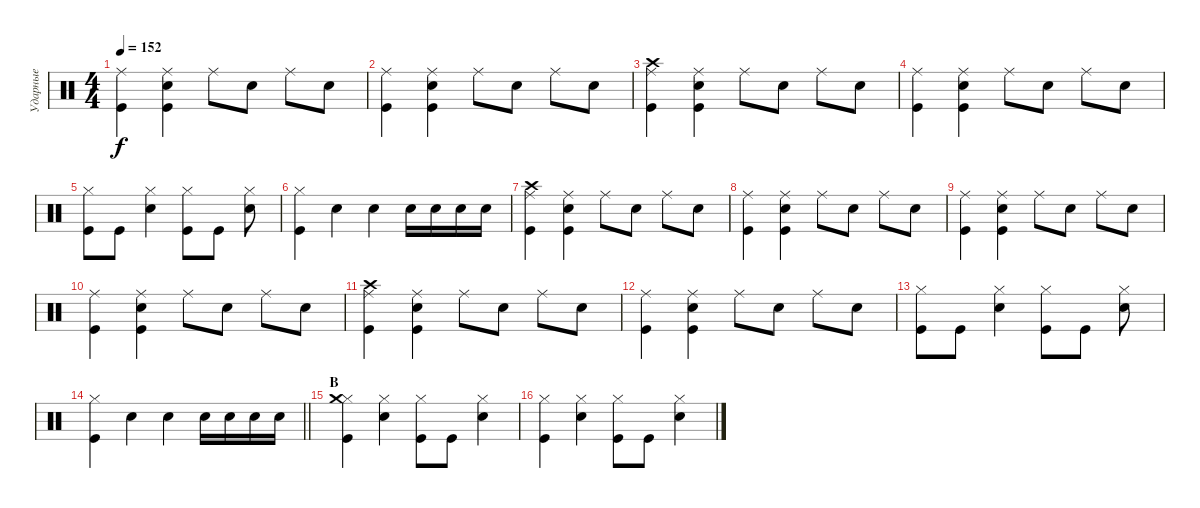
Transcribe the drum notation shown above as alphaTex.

\track ("Ударные" "Ударные") {instrument percussion}
\staff {score}
\articulation defaults
\ts (4 4)
\tempo 152
\clef neutral
\ks c
("Ride (middle)" "Kick (hit)").4{dy f} ("Kick (hit)" "Ride (middle)" "Snare (hit) 2").4 "Ride (middle)".8 "Snare (hit) 2".8 "Ride (middle)".8 "Snare (hit) 2".8 |
("Ride (middle)" "Kick (hit)").4 ("Kick (hit)" "Ride (middle)" "Snare (hit) 2").4 "Ride (middle)".8 "Snare (hit) 2".8 "Ride (middle)".8 "Snare (hit) 2".8 |
("Crash high (hit)" "Ride (middle)" "Kick (hit)").4 ("Kick (hit)" "Ride (middle)" "Snare (hit) 2").4 "Ride (middle)".8 "Snare (hit) 2".8 "Ride (middle)".8 "Snare (hit) 2".8 |
("Ride (middle)" "Kick (hit)").4 ("Kick (hit)" "Ride (middle)" "Snare (hit) 2").4 "Ride (middle)".8 "Snare (hit) 2".8 "Ride (middle)".8 "Snare (hit) 2".8 |
("Kick (hit)" "Hi-Hat (closed)").8 "Kick (hit)".8 ("Snare (hit) 2" "Hi-Hat (closed)").4 ("Hi-Hat (closed)" "Kick (hit)").8 "Kick (hit)".8 ("Snare (hit) 2" "Hi-Hat (closed)").8 |
("Kick (hit)" "Hi-Hat (closed)").4 "Snare (hit) 2".4 "Snare (hit) 2".4 "Snare (hit) 2".16 "Snare (hit) 2".16 "Snare (hit) 2".16 "Snare (hit) 2".16 |
("Crash high (hit)" "Ride (middle)" "Kick (hit)").4 ("Kick (hit)" "Ride (middle)" "Snare (hit) 2").4 "Ride (middle)".8 "Snare (hit) 2".8 "Ride (middle)".8 "Snare (hit) 2".8 |
("Ride (middle)" "Kick (hit)").4 ("Kick (hit)" "Ride (middle)" "Snare (hit) 2").4 "Ride (middle)".8 "Snare (hit) 2".8 "Ride (middle)".8 "Snare (hit) 2".8 |
("Ride (middle)" "Kick (hit)").4 ("Kick (hit)" "Ride (middle)" "Snare (hit) 2").4 "Ride (middle)".8 "Snare (hit) 2".8 "Ride (middle)".8 "Snare (hit) 2".8 |
("Ride (middle)" "Kick (hit)").4 ("Kick (hit)" "Ride (middle)" "Snare (hit) 2").4 "Ride (middle)".8 "Snare (hit) 2".8 "Ride (middle)".8 "Snare (hit) 2".8 |
("Crash high (hit)" "Ride (middle)" "Kick (hit)").4 ("Kick (hit)" "Ride (middle)" "Snare (hit) 2").4 "Ride (middle)".8 "Snare (hit) 2".8 "Ride (middle)".8 "Snare (hit) 2".8 |
("Ride (middle)" "Kick (hit)").4 ("Kick (hit)" "Ride (middle)" "Snare (hit) 2").4 "Ride (middle)".8 "Snare (hit) 2".8 "Ride (middle)".8 "Snare (hit) 2".8 |
("Kick (hit)" "Hi-Hat (closed)").8 "Kick (hit)".8 ("Snare (hit) 2" "Hi-Hat (closed)").4 ("Hi-Hat (closed)" "Kick (hit)").8 "Kick (hit)".8 ("Snare (hit) 2" "Hi-Hat (closed)").8 |
\barLineRight lightlight
("Kick (hit)" "Hi-Hat (closed)").4 "Snare (hit) 2".4 "Snare (hit) 2".4 "Snare (hit) 2".16 "Snare (hit) 2".16 "Snare (hit) 2".16 "Snare (hit) 2".16 |
\section ("" "В")
("Hi-Hat (closed)" "Crash medium (hit)" "Kick (hit)").4 ("Hi-Hat (closed)" "Snare (hit) 2").4 ("Kick (hit)" "Hi-Hat (closed)").8 "Kick (hit)".8 ("Snare (hit) 2" "Hi-Hat (closed)").4 |
("Hi-Hat (closed)" "Kick (hit)").4 ("Hi-Hat (closed)" "Snare (hit) 2").4 ("Kick (hit)" "Hi-Hat (closed)").8 "Kick (hit)".8 ("Snare (hit) 2" "Hi-Hat (closed)").4
